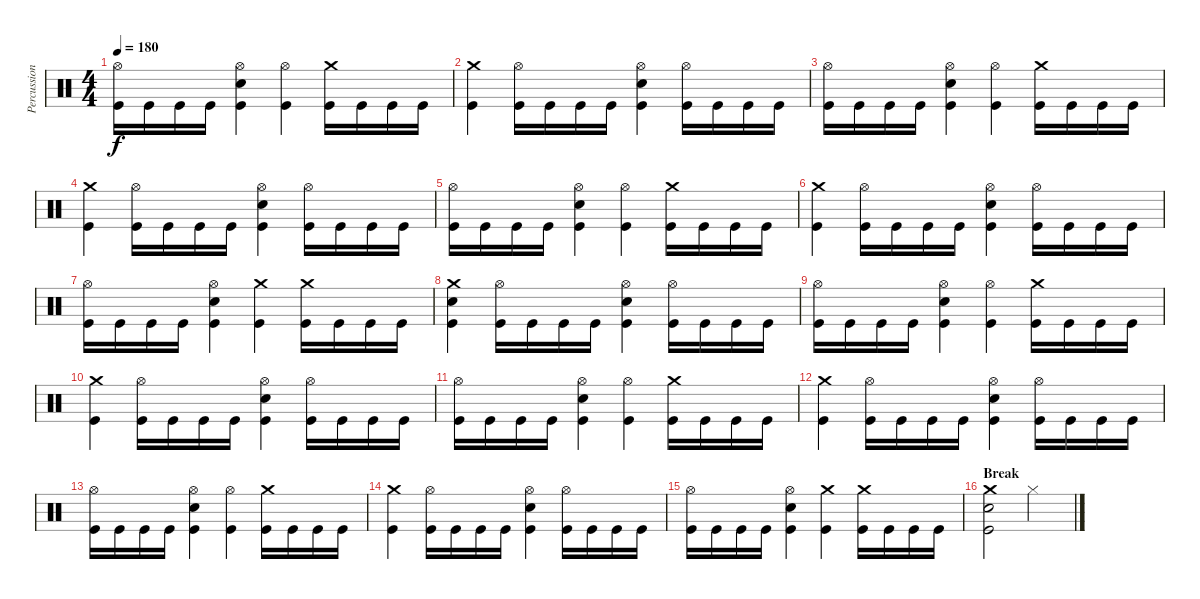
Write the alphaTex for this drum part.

\track ("Percussion" "Percussion") {instrument percussion}
\staff {score}
\articulation defaults
\ts (4 4)
\tempo 180
\clef neutral
\ks c
("Hi-Hat (open)" "Kick (hit)").16{dy f} "Kick (hit)".16 "Kick (hit)".16 "Kick (hit)".16 ("Hi-Hat (open)" "Snare (hit) 2" "Kick (hit)").4 ("Hi-Hat (open)" "Kick (hit)").4 ("Crash medium (hit)" "Kick (hit)").16 "Kick (hit)".16 "Kick (hit)".16 "Kick (hit)".16 |
("Crash medium (hit)" "Kick (hit)").4 ("Hi-Hat (open)" "Kick (hit)").16 "Kick (hit)".16 "Kick (hit)".16 "Kick (hit)".16 ("Hi-Hat (open)" "Snare (hit) 2" "Kick (hit)").4 ("Hi-Hat (open)" "Kick (hit)").16 "Kick (hit)".16 "Kick (hit)".16 "Kick (hit)".16 |
("Hi-Hat (open)" "Kick (hit)").16 "Kick (hit)".16 "Kick (hit)".16 "Kick (hit)".16 ("Hi-Hat (open)" "Snare (hit) 2" "Kick (hit)").4 ("Hi-Hat (open)" "Kick (hit)").4 ("Crash medium (hit)" "Kick (hit)").16 "Kick (hit)".16 "Kick (hit)".16 "Kick (hit)".16 |
("Crash medium (hit)" "Kick (hit)").4 ("Hi-Hat (open)" "Kick (hit)").16 "Kick (hit)".16 "Kick (hit)".16 "Kick (hit)".16 ("Hi-Hat (open)" "Snare (hit) 2" "Kick (hit)").4 ("Hi-Hat (open)" "Kick (hit)").16 "Kick (hit)".16 "Kick (hit)".16 "Kick (hit)".16 |
("Hi-Hat (open)" "Kick (hit)").16 "Kick (hit)".16 "Kick (hit)".16 "Kick (hit)".16 ("Hi-Hat (open)" "Snare (hit) 2" "Kick (hit)").4 ("Hi-Hat (open)" "Kick (hit)").4 ("Crash medium (hit)" "Kick (hit)").16 "Kick (hit)".16 "Kick (hit)".16 "Kick (hit)".16 |
("Crash medium (hit)" "Kick (hit)").4 ("Hi-Hat (open)" "Kick (hit)").16 "Kick (hit)".16 "Kick (hit)".16 "Kick (hit)".16 ("Hi-Hat (open)" "Snare (hit) 2" "Kick (hit)").4 ("Hi-Hat (open)" "Kick (hit)").16 "Kick (hit)".16 "Kick (hit)".16 "Kick (hit)".16 |
("Hi-Hat (open)" "Kick (hit)").16 "Kick (hit)".16 "Kick (hit)".16 "Kick (hit)".16 ("Hi-Hat (open)" "Snare (hit) 2" "Kick (hit)").4 ("Crash medium (hit)" "Kick (hit)").4 ("Crash medium (hit)" "Kick (hit)").16 "Kick (hit)".16 "Kick (hit)".16 "Kick (hit)".16 |
("Crash medium (hit)" "Snare (hit) 2" "Kick (hit)").4 ("Hi-Hat (open)" "Kick (hit)").16 "Kick (hit)".16 "Kick (hit)".16 "Kick (hit)".16 ("Hi-Hat (open)" "Snare (hit) 2" "Kick (hit)").4 ("Hi-Hat (open)" "Kick (hit)").16 "Kick (hit)".16 "Kick (hit)".16 "Kick (hit)".16 |
("Hi-Hat (open)" "Kick (hit)").16 "Kick (hit)".16 "Kick (hit)".16 "Kick (hit)".16 ("Hi-Hat (open)" "Snare (hit) 2" "Kick (hit)").4 ("Hi-Hat (open)" "Kick (hit)").4 ("Crash medium (hit)" "Kick (hit)").16 "Kick (hit)".16 "Kick (hit)".16 "Kick (hit)".16 |
("Crash medium (hit)" "Kick (hit)").4 ("Hi-Hat (open)" "Kick (hit)").16 "Kick (hit)".16 "Kick (hit)".16 "Kick (hit)".16 ("Hi-Hat (open)" "Snare (hit) 2" "Kick (hit)").4 ("Hi-Hat (open)" "Kick (hit)").16 "Kick (hit)".16 "Kick (hit)".16 "Kick (hit)".16 |
("Hi-Hat (open)" "Kick (hit)").16 "Kick (hit)".16 "Kick (hit)".16 "Kick (hit)".16 ("Hi-Hat (open)" "Snare (hit) 2" "Kick (hit)").4 ("Hi-Hat (open)" "Kick (hit)").4 ("Crash medium (hit)" "Kick (hit)").16 "Kick (hit)".16 "Kick (hit)".16 "Kick (hit)".16 |
("Crash medium (hit)" "Kick (hit)").4 ("Hi-Hat (open)" "Kick (hit)").16 "Kick (hit)".16 "Kick (hit)".16 "Kick (hit)".16 ("Hi-Hat (open)" "Snare (hit) 2" "Kick (hit)").4 ("Hi-Hat (open)" "Kick (hit)").16 "Kick (hit)".16 "Kick (hit)".16 "Kick (hit)".16 |
("Hi-Hat (open)" "Kick (hit)").16 "Kick (hit)".16 "Kick (hit)".16 "Kick (hit)".16 ("Hi-Hat (open)" "Snare (hit) 2" "Kick (hit)").4 ("Hi-Hat (open)" "Kick (hit)").4 ("Crash medium (hit)" "Kick (hit)").16 "Kick (hit)".16 "Kick (hit)".16 "Kick (hit)".16 |
("Crash medium (hit)" "Kick (hit)").4 ("Hi-Hat (open)" "Kick (hit)").16 "Kick (hit)".16 "Kick (hit)".16 "Kick (hit)".16 ("Hi-Hat (open)" "Snare (hit) 2" "Kick (hit)").4 ("Hi-Hat (open)" "Kick (hit)").16 "Kick (hit)".16 "Kick (hit)".16 "Kick (hit)".16 |
("Hi-Hat (open)" "Kick (hit)").16 "Kick (hit)".16 "Kick (hit)".16 "Kick (hit)".16 ("Hi-Hat (open)" "Snare (hit) 2" "Kick (hit)").4 ("Crash medium (hit)" "Kick (hit)").4 ("Crash medium (hit)" "Kick (hit)").16 "Kick (hit)".16 "Kick (hit)".16 "Kick (hit)".16 |
\section ("" "Break")
("Crash medium (hit)" "Snare (hit) 2" "Kick (hit)").2 "Hi-Hat (closed)".2
